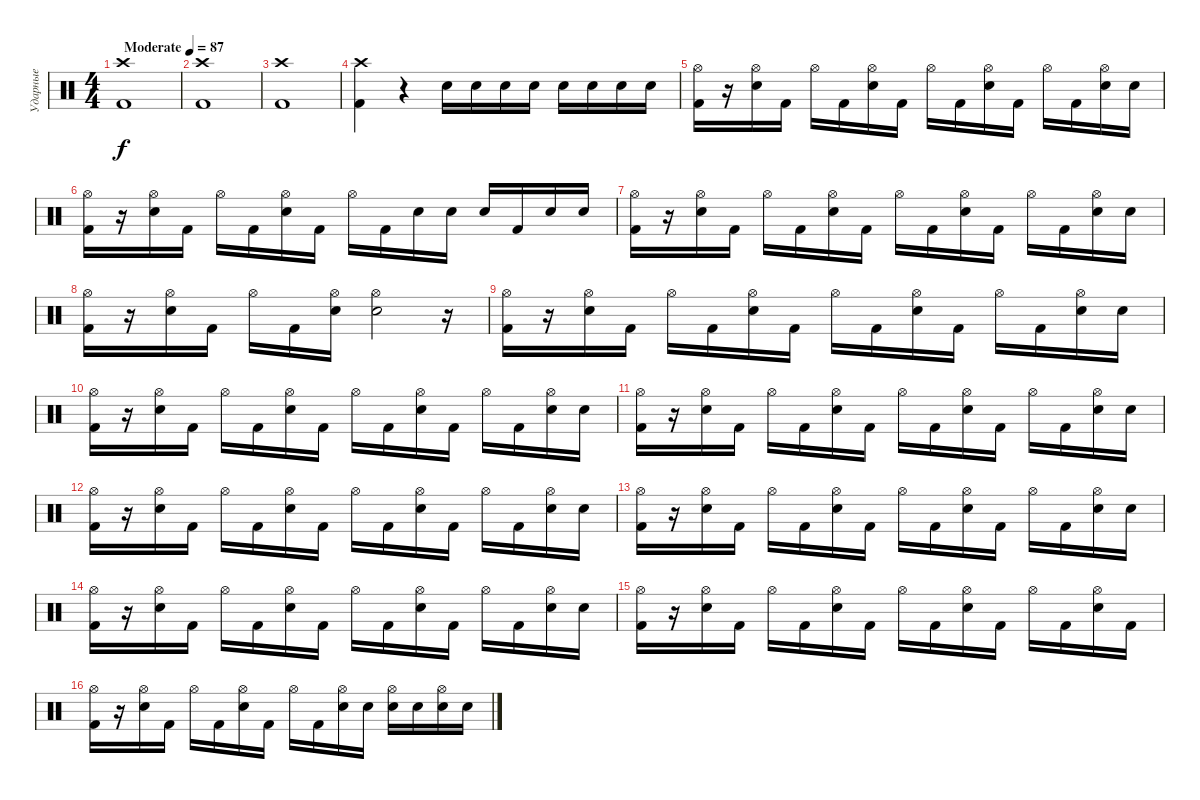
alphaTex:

\track ("Ударные" "Ударные") {instrument percussion}
\staff {score}
\articulation defaults
\ts (4 4)
\tempo (87 "Moderate")
\clef neutral
\ks c
("Crash high (hit)" "Kick (hit) 2").1{dy f} |
("Crash high (hit)" "Kick (hit) 2").1 |
("Crash high (hit)" "Kick (hit) 2").1 |
("Crash high (hit)" "Kick (hit) 2").4 r.4 "Snare (hit) 2".16 "Snare (hit) 2".16 "Snare (hit) 2".16 "Snare (hit) 2".16 "Snare (hit) 2".16 "Snare (hit) 2".16 "Snare (hit) 2".16 "Snare (hit) 2".16 |
("Hi-Hat (open)" "Kick (hit) 2").16 r.16 ("Hi-Hat (open)" "Snare (hit) 2").16 "Kick (hit) 2".16 "Hi-Hat (open)".16 "Kick (hit) 2".16 ("Hi-Hat (open)" "Snare (hit) 2").16 "Kick (hit) 2".16 "Hi-Hat (open)".16 "Kick (hit) 2".16 ("Hi-Hat (open)" "Snare (hit) 2").16 "Kick (hit) 2".16 "Hi-Hat (open)".16 "Kick (hit) 2".16 ("Hi-Hat (open)" "Snare (hit) 2").16 "Snare (hit) 2".16 |
("Hi-Hat (open)" "Kick (hit) 2").16 r.16 ("Hi-Hat (open)" "Snare (hit) 2").16 "Kick (hit) 2".16 "Hi-Hat (open)".16 "Kick (hit) 2".16 ("Hi-Hat (open)" "Snare (hit) 2").16 "Kick (hit) 2".16 "Hi-Hat (open)".16 "Kick (hit) 2".16 "Snare (hit) 2".16 "Snare (hit) 2".16 "Snare (hit) 2".16 "Kick (hit) 2".16 "Snare (hit) 2".16 "Snare (hit) 2".16 |
("Hi-Hat (open)" "Kick (hit) 2").16 r.16 ("Hi-Hat (open)" "Snare (hit) 2").16 "Kick (hit) 2".16 "Hi-Hat (open)".16 "Kick (hit) 2".16 ("Hi-Hat (open)" "Snare (hit) 2").16 "Kick (hit) 2".16 "Hi-Hat (open)".16 "Kick (hit) 2".16 ("Hi-Hat (open)" "Snare (hit) 2").16 "Kick (hit) 2".16 "Hi-Hat (open)".16 "Kick (hit) 2".16 ("Hi-Hat (open)" "Snare (hit) 2").16 "Snare (hit) 2".16 |
("Hi-Hat (open)" "Kick (hit) 2").16 r.16 ("Hi-Hat (open)" "Snare (hit) 2").16 "Kick (hit) 2".16 "Hi-Hat (open)".16 "Kick (hit) 2".16 ("Hi-Hat (open)" "Snare (hit) 2").16 ("Hi-Hat (open)" "Snare (hit) 2").2 r.16 |
("Hi-Hat (open)" "Kick (hit) 2").16 r.16 ("Hi-Hat (open)" "Snare (hit) 2").16 "Kick (hit) 2".16 "Hi-Hat (open)".16 "Kick (hit) 2".16 ("Hi-Hat (open)" "Snare (hit) 2").16 "Kick (hit) 2".16 "Hi-Hat (open)".16 "Kick (hit) 2".16 ("Hi-Hat (open)" "Snare (hit) 2").16 "Kick (hit) 2".16 "Hi-Hat (open)".16 "Kick (hit) 2".16 ("Hi-Hat (open)" "Snare (hit) 2").16 "Snare (hit) 2".16 |
("Hi-Hat (open)" "Kick (hit) 2").16 r.16 ("Hi-Hat (open)" "Snare (hit) 2").16 "Kick (hit) 2".16 "Hi-Hat (open)".16 "Kick (hit) 2".16 ("Hi-Hat (open)" "Snare (hit) 2").16 "Kick (hit) 2".16 "Hi-Hat (open)".16 "Kick (hit) 2".16 ("Hi-Hat (open)" "Snare (hit) 2").16 "Kick (hit) 2".16 "Hi-Hat (open)".16 "Kick (hit) 2".16 ("Hi-Hat (open)" "Snare (hit) 2").16 "Snare (hit) 2".16 |
("Hi-Hat (open)" "Kick (hit) 2").16 r.16 ("Hi-Hat (open)" "Snare (hit) 2").16 "Kick (hit) 2".16 "Hi-Hat (open)".16 "Kick (hit) 2".16 ("Hi-Hat (open)" "Snare (hit) 2").16 "Kick (hit) 2".16 "Hi-Hat (open)".16 "Kick (hit) 2".16 ("Hi-Hat (open)" "Snare (hit) 2").16 "Kick (hit) 2".16 "Hi-Hat (open)".16 "Kick (hit) 2".16 ("Hi-Hat (open)" "Snare (hit) 2").16 "Snare (hit) 2".16 |
("Hi-Hat (open)" "Kick (hit) 2").16 r.16 ("Hi-Hat (open)" "Snare (hit) 2").16 "Kick (hit) 2".16 "Hi-Hat (open)".16 "Kick (hit) 2".16 ("Hi-Hat (open)" "Snare (hit) 2").16 "Kick (hit) 2".16 "Hi-Hat (open)".16 "Kick (hit) 2".16 ("Hi-Hat (open)" "Snare (hit) 2").16 "Kick (hit) 2".16 "Hi-Hat (open)".16 "Kick (hit) 2".16 ("Hi-Hat (open)" "Snare (hit) 2").16 "Snare (hit) 2".16 |
("Hi-Hat (open)" "Kick (hit) 2").16 r.16 ("Hi-Hat (open)" "Snare (hit) 2").16 "Kick (hit) 2".16 "Hi-Hat (open)".16 "Kick (hit) 2".16 ("Hi-Hat (open)" "Snare (hit) 2").16 "Kick (hit) 2".16 "Hi-Hat (open)".16 "Kick (hit) 2".16 ("Hi-Hat (open)" "Snare (hit) 2").16 "Kick (hit) 2".16 "Hi-Hat (open)".16 "Kick (hit) 2".16 ("Hi-Hat (open)" "Snare (hit) 2").16 "Snare (hit) 2".16 |
("Hi-Hat (open)" "Kick (hit) 2").16 r.16 ("Hi-Hat (open)" "Snare (hit) 2").16 "Kick (hit) 2".16 "Hi-Hat (open)".16 "Kick (hit) 2".16 ("Hi-Hat (open)" "Snare (hit) 2").16 "Kick (hit) 2".16 "Hi-Hat (open)".16 "Kick (hit) 2".16 ("Hi-Hat (open)" "Snare (hit) 2").16 "Kick (hit) 2".16 "Hi-Hat (open)".16 "Kick (hit) 2".16 ("Hi-Hat (open)" "Snare (hit) 2").16 "Snare (hit) 2".16 |
("Hi-Hat (open)" "Kick (hit) 2").16 r.16 ("Hi-Hat (open)" "Snare (hit) 2").16 "Kick (hit) 2".16 "Hi-Hat (open)".16 "Kick (hit) 2".16 ("Hi-Hat (open)" "Snare (hit) 2").16 "Kick (hit) 2".16 "Hi-Hat (open)".16 "Kick (hit) 2".16 ("Hi-Hat (open)" "Snare (hit) 2").16 "Kick (hit) 2".16 "Hi-Hat (open)".16 "Kick (hit) 2".16 ("Hi-Hat (open)" "Snare (hit) 2").16 "Kick (hit) 2".16 |
("Hi-Hat (open)" "Kick (hit) 2").16 r.16 ("Hi-Hat (open)" "Snare (hit) 2").16 "Kick (hit) 2".16 "Hi-Hat (open)".16 "Kick (hit) 2".16 ("Hi-Hat (open)" "Snare (hit) 2").16 "Kick (hit) 2".16 "Hi-Hat (open)".16 "Kick (hit) 2".16 ("Hi-Hat (open)" "Snare (hit) 2").16 "Snare (hit) 2".16 ("Hi-Hat (open)" "Snare (hit) 2").16 "Snare (hit) 2".16 ("Hi-Hat (open)" "Snare (hit) 2").16 "Snare (hit) 2".16
